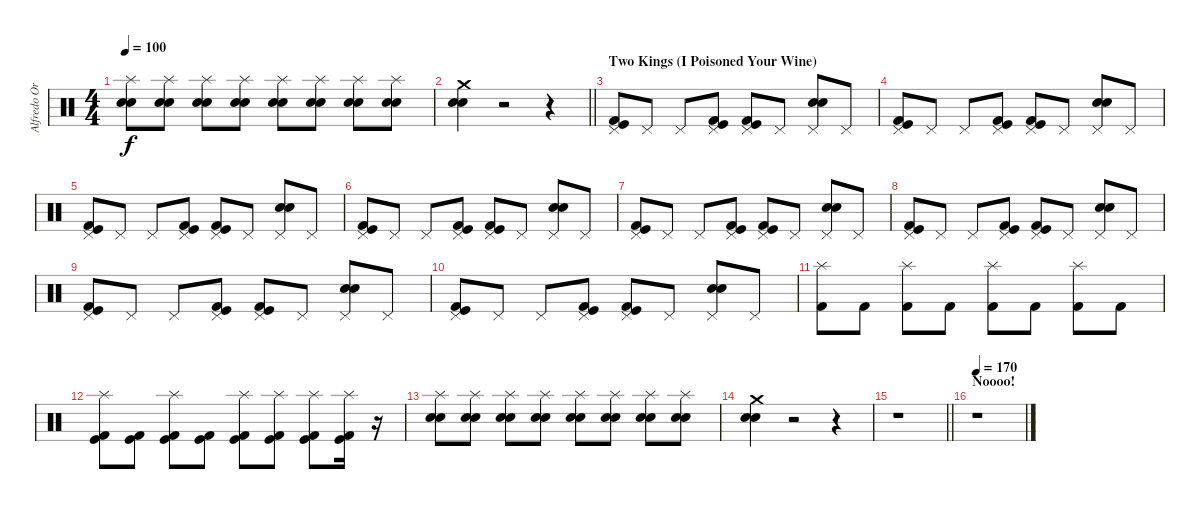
\track ("Alfredo Ortiz (Drums)" "Alfredo Or") {instrument percussion}
\staff {score}
\articulation defaults
\ts (4 4)
\tempo 100
\clef neutral
\ks c
("Snare (hit) 2" "Electric Snare (hit)" "Splash (hit)").8{dy f volume 11} ("Snare (hit) 2" "Electric Snare (hit)" "Splash (hit)").8 ("Snare (hit) 2" "Electric Snare (hit)" "Splash (hit)").8 ("Snare (hit) 2" "Electric Snare (hit)" "Splash (hit)").8 ("Snare (hit) 2" "Electric Snare (hit)" "Splash (hit)").8 ("Snare (hit) 2" "Electric Snare (hit)" "Splash (hit)").8 ("Snare (hit) 2" "Electric Snare (hit)" "Splash (hit)").8 ("Snare (hit) 2" "Electric Snare (hit)" "Splash (hit)").8 |
\barLineRight lightlight
("Snare (hit) 2" "Electric Snare (hit)" "Crash medium (hit)").4 r.2 r.4 |
\section ("" "Two Kings (I Poisoned Your Wine)")
("Kick (hit) 2" "Kick (hit)" "Pedal Hi-Hat (hit)").8 "Pedal Hi-Hat (hit)".8 "Pedal Hi-Hat (hit)".8 ("Kick (hit) 2" "Kick (hit)" "Pedal Hi-Hat (hit)").8 ("Kick (hit) 2" "Kick (hit)" "Pedal Hi-Hat (hit)").8 "Pedal Hi-Hat (hit)".8 ("Snare (hit) 2" "Electric Snare (hit)" "Pedal Hi-Hat (hit)").8 "Pedal Hi-Hat (hit)".8 |
("Kick (hit) 2" "Kick (hit)" "Pedal Hi-Hat (hit)").8 "Pedal Hi-Hat (hit)".8 "Pedal Hi-Hat (hit)".8 ("Kick (hit) 2" "Kick (hit)" "Pedal Hi-Hat (hit)").8 ("Kick (hit) 2" "Kick (hit)" "Pedal Hi-Hat (hit)").8 "Pedal Hi-Hat (hit)".8 ("Snare (hit) 2" "Electric Snare (hit)" "Pedal Hi-Hat (hit)").8 "Pedal Hi-Hat (hit)".8 |
("Kick (hit) 2" "Kick (hit)" "Pedal Hi-Hat (hit)").8 "Pedal Hi-Hat (hit)".8 "Pedal Hi-Hat (hit)".8 ("Kick (hit) 2" "Kick (hit)" "Pedal Hi-Hat (hit)").8 ("Kick (hit) 2" "Kick (hit)" "Pedal Hi-Hat (hit)").8 "Pedal Hi-Hat (hit)".8 ("Snare (hit) 2" "Electric Snare (hit)" "Pedal Hi-Hat (hit)").8 "Pedal Hi-Hat (hit)".8 |
("Kick (hit) 2" "Kick (hit)" "Pedal Hi-Hat (hit)").8 "Pedal Hi-Hat (hit)".8 "Pedal Hi-Hat (hit)".8 ("Kick (hit) 2" "Kick (hit)" "Pedal Hi-Hat (hit)").8 ("Kick (hit) 2" "Kick (hit)" "Pedal Hi-Hat (hit)").8 "Pedal Hi-Hat (hit)".8 ("Snare (hit) 2" "Electric Snare (hit)" "Pedal Hi-Hat (hit)").8 "Pedal Hi-Hat (hit)".8 |
("Kick (hit) 2" "Kick (hit)" "Pedal Hi-Hat (hit)").8 "Pedal Hi-Hat (hit)".8 "Pedal Hi-Hat (hit)".8 ("Kick (hit) 2" "Kick (hit)" "Pedal Hi-Hat (hit)").8 ("Kick (hit) 2" "Kick (hit)" "Pedal Hi-Hat (hit)").8 "Pedal Hi-Hat (hit)".8 ("Snare (hit) 2" "Electric Snare (hit)" "Pedal Hi-Hat (hit)").8 "Pedal Hi-Hat (hit)".8 |
("Kick (hit) 2" "Kick (hit)" "Pedal Hi-Hat (hit)").8 "Pedal Hi-Hat (hit)".8 "Pedal Hi-Hat (hit)".8 ("Kick (hit) 2" "Kick (hit)" "Pedal Hi-Hat (hit)").8 ("Kick (hit) 2" "Kick (hit)" "Pedal Hi-Hat (hit)").8 "Pedal Hi-Hat (hit)".8 ("Snare (hit) 2" "Electric Snare (hit)" "Pedal Hi-Hat (hit)").8 "Pedal Hi-Hat (hit)".8 |
("Kick (hit) 2" "Kick (hit)" "Pedal Hi-Hat (hit)").8 "Pedal Hi-Hat (hit)".8 "Pedal Hi-Hat (hit)".8 ("Kick (hit) 2" "Kick (hit)" "Pedal Hi-Hat (hit)").8 ("Kick (hit) 2" "Kick (hit)" "Pedal Hi-Hat (hit)").8 "Pedal Hi-Hat (hit)".8 ("Snare (hit) 2" "Electric Snare (hit)" "Pedal Hi-Hat (hit)").8 "Pedal Hi-Hat (hit)".8 |
("Kick (hit) 2" "Kick (hit)" "Pedal Hi-Hat (hit)").8 "Pedal Hi-Hat (hit)".8 "Pedal Hi-Hat (hit)".8 ("Kick (hit) 2" "Kick (hit)" "Pedal Hi-Hat (hit)").8 ("Kick (hit) 2" "Kick (hit)" "Pedal Hi-Hat (hit)").8 "Pedal Hi-Hat (hit)".8 ("Snare (hit) 2" "Electric Snare (hit)" "Pedal Hi-Hat (hit)").8 "Pedal Hi-Hat (hit)".8 |
("Kick (hit) 2" "Splash (hit)").8 "Kick (hit) 2".8 ("Kick (hit) 2" "Splash (hit)").8 "Kick (hit) 2".8 ("Kick (hit) 2" "Splash (hit)").8 "Kick (hit) 2".8 ("Kick (hit) 2" "Splash (hit)").8 "Kick (hit) 2".8 |
("Kick (hit) 2" "Kick (hit)" "Splash (hit)").8 ("Kick (hit) 2" "Kick (hit)").8 ("Kick (hit) 2" "Kick (hit)" "Splash (hit)").8 ("Kick (hit) 2" "Kick (hit)").8 ("Kick (hit) 2" "Kick (hit)" "Splash (hit)").8 ("Kick (hit) 2" "Kick (hit)" "Splash (hit)").8 ("Kick (hit) 2" "Kick (hit)" "Splash (hit)").8 ("Kick (hit) 2" "Kick (hit)" "Splash (hit)").16 r.16{volume 8} |
("Snare (hit) 2" "Electric Snare (hit)" "Splash (hit)").8{volume 11} ("Snare (hit) 2" "Electric Snare (hit)" "Splash (hit)").8 ("Snare (hit) 2" "Electric Snare (hit)" "Splash (hit)").8 ("Snare (hit) 2" "Electric Snare (hit)" "Splash (hit)").8 ("Snare (hit) 2" "Electric Snare (hit)" "Splash (hit)").8 ("Snare (hit) 2" "Electric Snare (hit)" "Splash (hit)").8 ("Snare (hit) 2" "Electric Snare (hit)" "Splash (hit)").8 ("Snare (hit) 2" "Electric Snare (hit)" "Splash (hit)").8 |
("Snare (hit) 2" "Electric Snare (hit)" "Crash medium (hit)").4 r.2 r.4 |
\barLineRight lightlight
r.1 |
\section ("" "Noooo!")
\tempo 170
r.1
